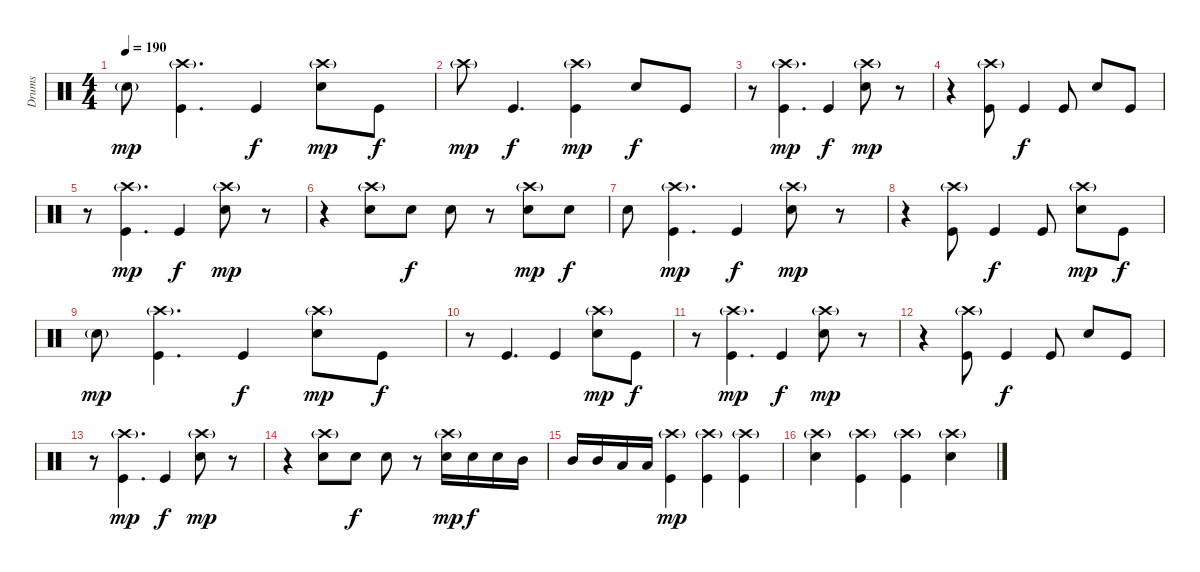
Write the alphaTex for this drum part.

\track ("Drums" "Drums") {instrument percussion}
\staff {score}
\articulation defaults
\ts (4 4)
\tempo 190
\clef neutral
\ks c "Electric Snare (hit)"{g}.8{dy mp}
("Kick (hit)" "Crash high (hit)"{g}).4{d} "Kick (hit)".4{dy f} ("Electric Snare (hit)" "Crash high (hit)"{g}).8{dy mp} "Kick (hit)".8{dy f} |
"Crash high (hit)"{g}.8{dy mp} "Kick (hit)".4{d dy f} ("Kick (hit)" "Crash high (hit)"{g}).4{dy mp} "Electric Snare (hit)".8{dy f} "Kick (hit)".8 |
r.8 ("Kick (hit)" "Crash high (hit)"{g}).4{d dy mp} "Kick (hit)".4{dy f} ("Electric Snare (hit)" "Crash high (hit)"{g}).8{dy mp} r.8 |
r.4 ("Kick (hit)" "Crash high (hit)"{g}).8 "Kick (hit)".4{dy f} "Kick (hit)".8 "Electric Snare (hit)".8 "Kick (hit)".8 |
r.8 ("Kick (hit)" "Crash high (hit)"{g}).4{d dy mp} "Kick (hit)".4{dy f} ("Electric Snare (hit)" "Crash high (hit)"{g}).8{dy mp} r.8 |
r.4 ("Electric Snare (hit)" "Crash high (hit)"{g}).8 "Electric Snare (hit)".8{dy f} "Electric Snare (hit)".8 r.8 ("Electric Snare (hit)" "Crash high (hit)"{g}).8{dy mp} "Electric Snare (hit)".8{dy f} |
"Electric Snare (hit)".8 ("Kick (hit)" "Crash high (hit)"{g}).4{d dy mp} "Kick (hit)".4{dy f} ("Electric Snare (hit)" "Crash high (hit)"{g}).8{dy mp} r.8 |
r.4 ("Kick (hit)" "Crash high (hit)"{g}).8 "Kick (hit)".4{dy f} "Kick (hit)".8 ("Electric Snare (hit)" "Crash high (hit)"{g}).8{dy mp} "Kick (hit)".8{dy f} |
"Electric Snare (hit)"{g}.8{dy mp} ("Kick (hit)" "Crash high (hit)"{g}).4{d} "Kick (hit)".4{dy f} ("Electric Snare (hit)" "Crash high (hit)"{g}).8{dy mp} "Kick (hit)".8{dy f} |
r.8 "Kick (hit)".4{d} "Kick (hit)".4 ("Electric Snare (hit)" "Crash high (hit)"{g}).8{dy mp} "Kick (hit)".8{dy f} |
r.8 ("Kick (hit)" "Crash high (hit)"{g}).4{d dy mp} "Kick (hit)".4{dy f} ("Electric Snare (hit)" "Crash high (hit)"{g}).8{dy mp} r.8 |
r.4 ("Kick (hit)" "Crash high (hit)"{g}).8 "Kick (hit)".4{dy f} "Kick (hit)".8 "Electric Snare (hit)".8 "Kick (hit)".8 |
r.8 ("Kick (hit)" "Crash high (hit)"{g}).4{d dy mp} "Kick (hit)".4{dy f} ("Electric Snare (hit)" "Crash high (hit)"{g}).8{dy mp} r.8 |
r.4 ("Electric Snare (hit)" "Crash high (hit)"{g}).8 "Electric Snare (hit)".8{dy f} "Electric Snare (hit)".8 r.8 ("Electric Snare (hit)" "Crash high (hit)"{g}).16{dy mp} "Electric Snare (hit)".16{dy f} "Electric Snare (hit)".16 "Mid Tom (hit)".16 |
"Mid Tom (hit)".16 "Mid Tom (hit)".16 "Low Tom (hit)".16 "Low Tom (hit)".16 ("Kick (hit)" "Crash high (hit)"{g}).4{dy mp} ("Kick (hit)" "Crash high (hit)"{g}).4 ("Kick (hit)" "Crash high (hit)"{g}).4 |
("Snare (hit) 2" "Crash high (hit)"{g}).4 ("Kick (hit)" "Crash high (hit)"{g}).4 ("Kick (hit)" "Crash high (hit)"{g}).4 ("Snare (hit) 2" "Crash high (hit)"{g}).4
